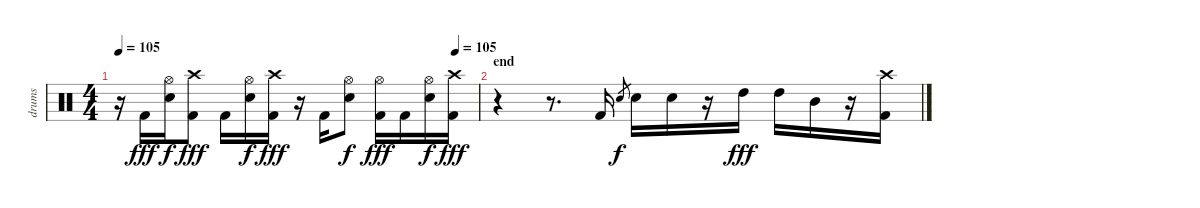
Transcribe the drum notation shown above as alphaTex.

\track ("drums" "drums") {instrument percussion}
\staff {score}
\articulation defaults
\ts (4 4)
\tempo 105
\tempo (105 0.9375)
\clef neutral
\ks c
r.16{dy fff} "Kick (hit) 2".16 ("Hi-Hat (open)" "Snare (hit) 2").16{dy f} ("Crash high (hit)" "Kick (hit) 2").8{dy fff} "Kick (hit) 2".16 ("Hi-Hat (open)" "Snare (hit) 2").16{dy f} ("Crash high (hit)" "Kick (hit) 2").16{dy fff} r.16 "Kick (hit) 2".16 ("Hi-Hat (open)" "Snare (hit) 2").8{dy f} ("Hi-Hat (open)" "Kick (hit) 2").16{dy fff} "Kick (hit) 2".16 ("Hi-Hat (open)" "Snare (hit) 2").16{dy f} ("Crash high (hit)" "Kick (hit) 2").16{dy fff} |
\section ("" "end")
r.4 r.8{d} "Kick (hit) 2".16 "Snare (hit) 2".8{gr dy f} "Snare (hit) 2".16 "Snare (hit) 2".16 r.16 "High Tom (hit)".16{dy fff} "High Tom (hit)".16 "Mid Tom (hit)".16 r.16 ("Crash high (hit)" "Kick (hit) 2").16
